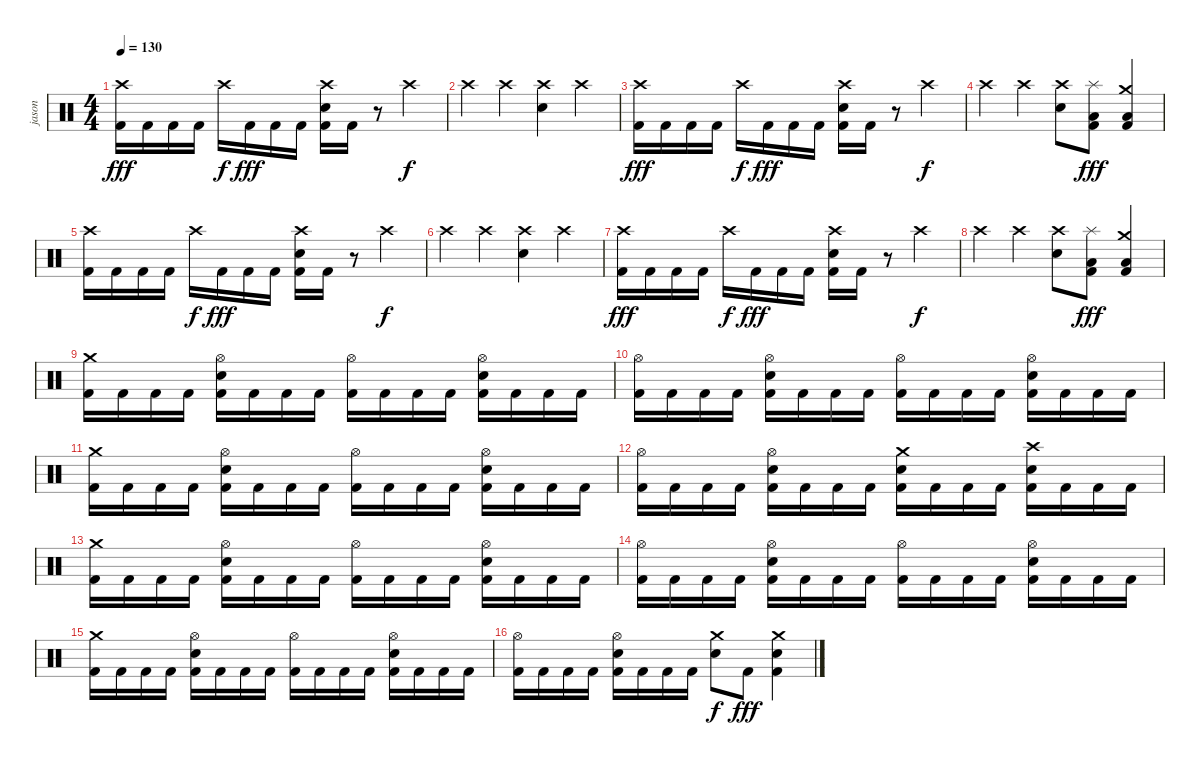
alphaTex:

\track ("jason" "jason") {solo instrument percussion}
\staff {score}
\articulation defaults
\ts (4 4)
\tempo 130
\clef neutral
\ks c
("Crash high (hit)" "Kick (hit) 2").16{dy fff} "Kick (hit) 2".16 "Kick (hit) 2".16 "Kick (hit) 2".16 "Crash high (hit)".16{dy f} "Kick (hit) 2".16{dy fff} "Kick (hit) 2".16 "Kick (hit) 2".16 ("Crash high (hit)" "Snare (hit) 2" "Kick (hit) 2").16 "Kick (hit) 2".16 r.8 "Crash high (hit)".4{dy f} |
"Crash high (hit)".4 "Crash high (hit)".4 ("Crash high (hit)" "Snare (hit) 2").4 "Crash high (hit)".4 |
("Crash high (hit)" "Kick (hit) 2").16{dy fff} "Kick (hit) 2".16 "Kick (hit) 2".16 "Kick (hit) 2".16 "Crash high (hit)".16{dy f} "Kick (hit) 2".16{dy fff} "Kick (hit) 2".16 "Kick (hit) 2".16 ("Crash high (hit)" "Snare (hit) 2" "Kick (hit) 2").16 "Kick (hit) 2".16 r.8 "Crash high (hit)".4{dy f} |
"Crash high (hit)".4 "Crash high (hit)".4 ("Crash high (hit)" "Snare (hit) 2").8 ("Splash (hit)" "Low Tom (hit)" "Kick (hit) 2").8{dy fff} ("Crash medium (hit)" "Low Floor Tom (hit)" "Kick (hit) 2").4 |
("Crash high (hit)" "Kick (hit) 2").16 "Kick (hit) 2".16 "Kick (hit) 2".16 "Kick (hit) 2".16 "Crash high (hit)".16{dy f} "Kick (hit) 2".16{dy fff} "Kick (hit) 2".16 "Kick (hit) 2".16 ("Crash high (hit)" "Snare (hit) 2" "Kick (hit) 2").16 "Kick (hit) 2".16 r.8 "Crash high (hit)".4{dy f} |
"Crash high (hit)".4 "Crash high (hit)".4 ("Crash high (hit)" "Snare (hit) 2").4 "Crash high (hit)".4 |
("Crash high (hit)" "Kick (hit) 2").16{dy fff} "Kick (hit) 2".16 "Kick (hit) 2".16 "Kick (hit) 2".16 "Crash high (hit)".16{dy f} "Kick (hit) 2".16{dy fff} "Kick (hit) 2".16 "Kick (hit) 2".16 ("Crash high (hit)" "Snare (hit) 2" "Kick (hit) 2").16 "Kick (hit) 2".16 r.8 "Crash high (hit)".4{dy f} |
"Crash high (hit)".4 "Crash high (hit)".4 ("Crash high (hit)" "Snare (hit) 2").8 ("Splash (hit)" "Low Tom (hit)" "Kick (hit) 2").8{dy fff} ("Crash medium (hit)" "Low Floor Tom (hit)" "Kick (hit) 2").4 |
("Crash medium (hit)" "Kick (hit) 2").16 "Kick (hit) 2".16 "Kick (hit) 2".16 "Kick (hit) 2".16 ("Hi-Hat (open)" "Snare (hit) 2" "Kick (hit) 2").16 "Kick (hit) 2".16 "Kick (hit) 2".16 "Kick (hit) 2".16 ("Hi-Hat (open)" "Kick (hit) 2").16 "Kick (hit) 2".16 "Kick (hit) 2".16 "Kick (hit) 2".16 ("Hi-Hat (open)" "Snare (hit) 2" "Kick (hit) 2").16 "Kick (hit) 2".16 "Kick (hit) 2".16 "Kick (hit) 2".16 |
("Hi-Hat (open)" "Kick (hit) 2").16 "Kick (hit) 2".16 "Kick (hit) 2".16 "Kick (hit) 2".16 ("Hi-Hat (open)" "Snare (hit) 2" "Kick (hit) 2").16 "Kick (hit) 2".16 "Kick (hit) 2".16 "Kick (hit) 2".16 ("Hi-Hat (open)" "Kick (hit) 2").16 "Kick (hit) 2".16 "Kick (hit) 2".16 "Kick (hit) 2".16 ("Hi-Hat (open)" "Snare (hit) 2" "Kick (hit) 2").16 "Kick (hit) 2".16 "Kick (hit) 2".16 "Kick (hit) 2".16 |
("Crash medium (hit)" "Kick (hit) 2").16 "Kick (hit) 2".16 "Kick (hit) 2".16 "Kick (hit) 2".16 ("Hi-Hat (open)" "Snare (hit) 2" "Kick (hit) 2").16 "Kick (hit) 2".16 "Kick (hit) 2".16 "Kick (hit) 2".16 ("Hi-Hat (open)" "Kick (hit) 2").16 "Kick (hit) 2".16 "Kick (hit) 2".16 "Kick (hit) 2".16 ("Hi-Hat (open)" "Snare (hit) 2" "Kick (hit) 2").16 "Kick (hit) 2".16 "Kick (hit) 2".16 "Kick (hit) 2".16 |
("Hi-Hat (open)" "Kick (hit) 2").16 "Kick (hit) 2".16 "Kick (hit) 2".16 "Kick (hit) 2".16 ("Hi-Hat (open)" "Snare (hit) 2" "Kick (hit) 2").16 "Kick (hit) 2".16 "Kick (hit) 2".16 "Kick (hit) 2".16 ("Crash medium (hit)" "Snare (hit) 2" "Kick (hit) 2").16 "Kick (hit) 2".16 "Kick (hit) 2".16 "Kick (hit) 2".16 ("Crash high (hit)" "Snare (hit) 2" "Kick (hit) 2").16 "Kick (hit) 2".16 "Kick (hit) 2".16 "Kick (hit) 2".16 |
("Crash medium (hit)" "Kick (hit) 2").16 "Kick (hit) 2".16 "Kick (hit) 2".16 "Kick (hit) 2".16 ("Hi-Hat (open)" "Snare (hit) 2" "Kick (hit) 2").16 "Kick (hit) 2".16 "Kick (hit) 2".16 "Kick (hit) 2".16 ("Hi-Hat (open)" "Kick (hit) 2").16 "Kick (hit) 2".16 "Kick (hit) 2".16 "Kick (hit) 2".16 ("Hi-Hat (open)" "Snare (hit) 2" "Kick (hit) 2").16 "Kick (hit) 2".16 "Kick (hit) 2".16 "Kick (hit) 2".16 |
("Hi-Hat (open)" "Kick (hit) 2").16 "Kick (hit) 2".16 "Kick (hit) 2".16 "Kick (hit) 2".16 ("Hi-Hat (open)" "Snare (hit) 2" "Kick (hit) 2").16 "Kick (hit) 2".16 "Kick (hit) 2".16 "Kick (hit) 2".16 ("Hi-Hat (open)" "Kick (hit) 2").16 "Kick (hit) 2".16 "Kick (hit) 2".16 "Kick (hit) 2".16 ("Hi-Hat (open)" "Snare (hit) 2" "Kick (hit) 2").16 "Kick (hit) 2".16 "Kick (hit) 2".16 "Kick (hit) 2".16 |
("Crash medium (hit)" "Kick (hit) 2").16 "Kick (hit) 2".16 "Kick (hit) 2".16 "Kick (hit) 2".16 ("Hi-Hat (open)" "Snare (hit) 2" "Kick (hit) 2").16 "Kick (hit) 2".16 "Kick (hit) 2".16 "Kick (hit) 2".16 ("Hi-Hat (open)" "Kick (hit) 2").16 "Kick (hit) 2".16 "Kick (hit) 2".16 "Kick (hit) 2".16 ("Hi-Hat (open)" "Snare (hit) 2" "Kick (hit) 2").16 "Kick (hit) 2".16 "Kick (hit) 2".16 "Kick (hit) 2".16 |
("Hi-Hat (open)" "Kick (hit) 2").16 "Kick (hit) 2".16 "Kick (hit) 2".16 "Kick (hit) 2".16 ("Hi-Hat (open)" "Snare (hit) 2" "Kick (hit) 2").16 "Kick (hit) 2".16 "Kick (hit) 2".16 "Kick (hit) 2".16 ("Crash medium (hit)" "Snare (hit) 2").8{dy f} "Kick (hit) 2".8{dy fff} ("Crash medium (hit)" "Snare (hit) 2" "Kick (hit) 2").4
